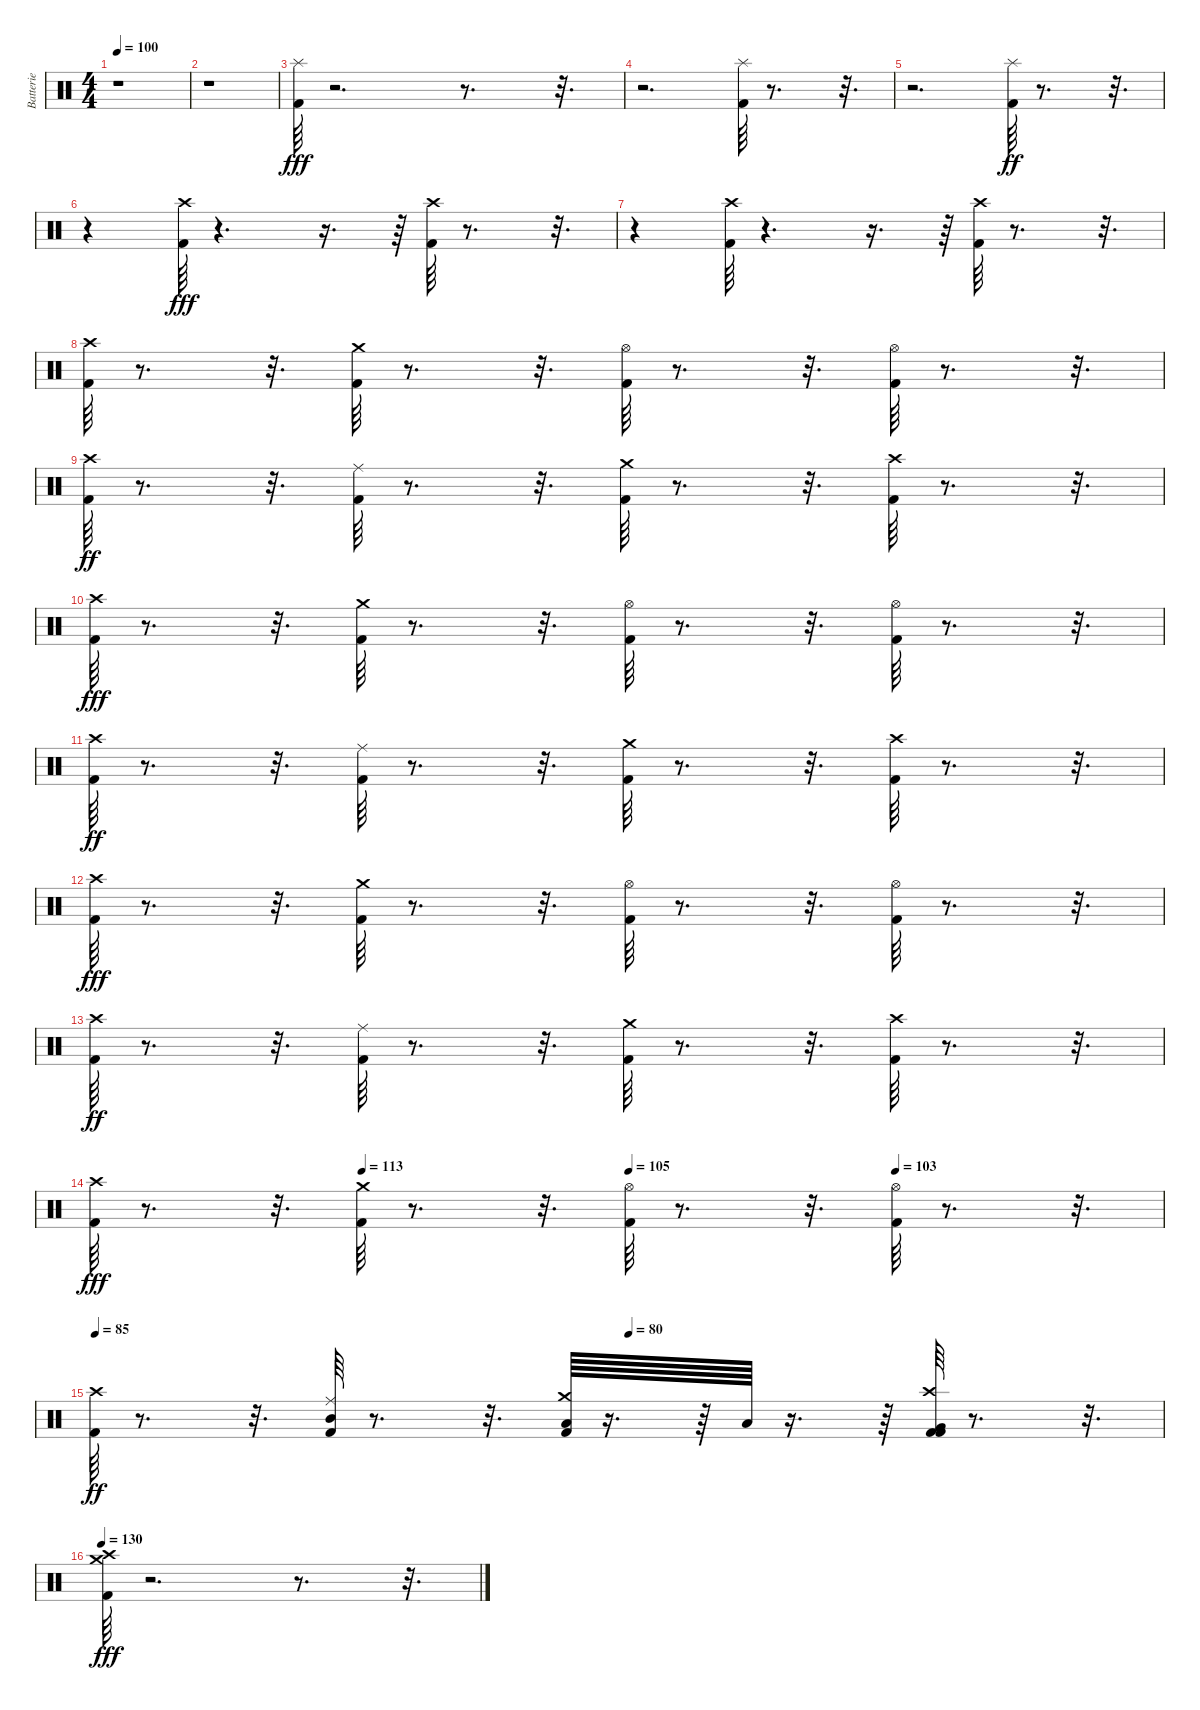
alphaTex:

\track ("Batterie" "Batterie") {instrument percussion}
\staff {score}
\articulation defaults
\ts (4 4)
\tempo 100
\clef neutral
\ks c
r.1{dy ff} |
r.1 |
("Kick (hit) 2" "Splash (hit)").64{dy fff} r.2{d} r.8{d} r.32{d} |
r.2{d} ("Kick (hit) 2" "Splash (hit)").64 r.8{d} r.32{d} |
r.2{d} ("Splash (hit)" "Kick (hit) 2").64{dy ff} r.8{d} r.32{d} |
r.4 ("Kick (hit) 2" "Crash high (hit)").64{dy fff} r.4{d} r.16{d} r.64 ("Kick (hit) 2" "Crash high (hit)").64 r.8{d} r.32{d} |
r.4 ("Kick (hit) 2" "Crash high (hit)").64 r.4{d} r.16{d} r.64 ("Kick (hit) 2" "Crash high (hit)").64 r.8{d} r.32{d} |
("Kick (hit) 2" "Crash high (hit)").64 r.8{d} r.32{d} ("Kick (hit) 2" "Crash medium (hit)").64 r.8{d} r.32{d} ("Kick (hit) 2" "Hi-Hat (open)").64 r.8{d} r.32{d} ("Kick (hit) 2" "Hi-Hat (open)").64 r.8{d} r.32{d} |
("Crash high (hit)" "Kick (hit) 2").64{dy ff} r.8{d} r.32{d} ("Ride (middle)" "Kick (hit) 2").64 r.8{d} r.32{d} ("Crash medium (hit)" "Kick (hit) 2").64 r.8{d} r.32{d} ("Crash high (hit)" "Kick (hit) 2").64 r.8{d} r.32{d} |
("Kick (hit) 2" "Crash high (hit)").64{dy fff} r.8{d} r.32{d} ("Kick (hit) 2" "Crash medium (hit)").64 r.8{d} r.32{d} ("Kick (hit) 2" "Hi-Hat (open)").64 r.8{d} r.32{d} ("Kick (hit) 2" "Hi-Hat (open)").64 r.8{d} r.32{d} |
("Crash high (hit)" "Kick (hit) 2").64{dy ff} r.8{d} r.32{d} ("Ride (middle)" "Kick (hit) 2").64 r.8{d} r.32{d} ("Crash medium (hit)" "Kick (hit) 2").64 r.8{d} r.32{d} ("Crash high (hit)" "Kick (hit) 2").64 r.8{d} r.32{d} |
("Kick (hit) 2" "Crash high (hit)").64{dy fff} r.8{d} r.32{d} ("Kick (hit) 2" "Crash medium (hit)").64 r.8{d} r.32{d} ("Kick (hit) 2" "Hi-Hat (open)").64 r.8{d} r.32{d} ("Kick (hit) 2" "Hi-Hat (open)").64 r.8{d} r.32{d} |
("Crash high (hit)" "Kick (hit) 2").64{dy ff} r.8{d} r.32{d} ("Ride (middle)" "Kick (hit) 2").64 r.8{d} r.32{d} ("Crash medium (hit)" "Kick (hit) 2").64 r.8{d} r.32{d} ("Crash high (hit)" "Kick (hit) 2").64 r.8{d} r.32{d} |
\tempo (113 0.25)
\tempo (105 0.5)
\tempo (103 0.75)
("Kick (hit) 2" "Crash high (hit)").64{dy fff} r.8{d} r.32{d} ("Kick (hit) 2" "Crash medium (hit)").64 r.8{d} r.32{d} ("Kick (hit) 2" "Hi-Hat (open)").64 r.8{d} r.32{d} ("Kick (hit) 2" "Hi-Hat (open)").64 r.8{d} r.32{d} |
\tempo 85
\tempo (80 0.5)
("Crash high (hit)" "Kick (hit) 2").64{dy ff} r.8{d} r.32{d} ("Ride (middle)" "Kick (hit) 2" "Mid Tom (hit)").64 r.8{d} r.32{d} ("Crash medium (hit)" "Kick (hit) 2" "Low Tom (hit)").64 r.16{d} r.64 "Low Tom (hit)".64 r.16{d} r.64 ("Crash high (hit)" "Kick (hit) 2" "Very Low Tom (hit)" "Kick (hit) 2").64 r.8{d} r.32{d} |
\tempo 130
("Kick (hit) 2" "Crash high (hit)" "Crash medium (hit)").64{dy fff} r.2{d} r.8{d} r.32{d}
